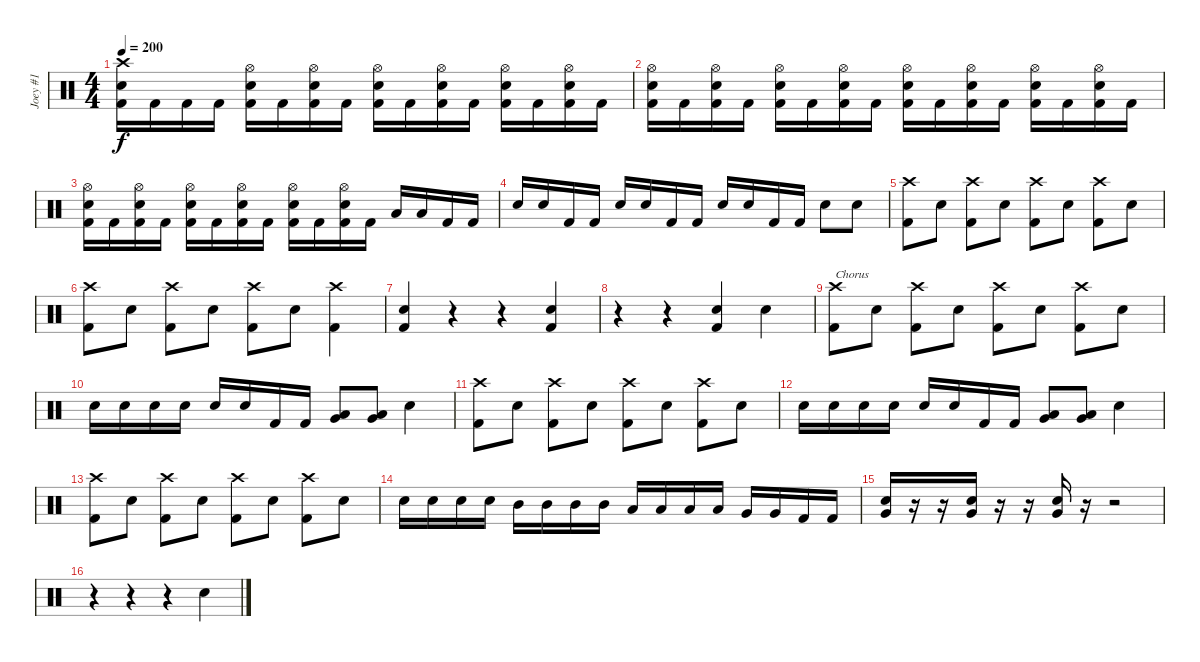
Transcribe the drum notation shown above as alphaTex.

\track ("Joey #1" "Joey #1") {instrument percussion}
\staff {score}
\articulation defaults
\ts (4 4)
\tempo 200
\clef neutral
\ks c
("Crash high (hit)" "Electric Snare (hit)" "Kick (hit) 2").16{dy f} "Kick (hit) 2".16 "Kick (hit) 2".16 "Kick (hit) 2".16 ("Hi-Hat (open)" "Electric Snare (hit)" "Kick (hit) 2").16 "Kick (hit) 2".16 ("Hi-Hat (open)" "Electric Snare (hit)" "Kick (hit) 2").16 "Kick (hit) 2".16 ("Hi-Hat (open)" "Electric Snare (hit)" "Kick (hit) 2").16 "Kick (hit) 2".16 ("Hi-Hat (open)" "Electric Snare (hit)" "Kick (hit) 2").16 "Kick (hit) 2".16 ("Hi-Hat (open)" "Electric Snare (hit)" "Kick (hit) 2").16 "Kick (hit) 2".16 ("Hi-Hat (open)" "Electric Snare (hit)" "Kick (hit) 2").16 "Kick (hit) 2".16 |
("Hi-Hat (open)" "Electric Snare (hit)" "Kick (hit) 2").16 "Kick (hit) 2".16 ("Hi-Hat (open)" "Electric Snare (hit)" "Kick (hit) 2").16 "Kick (hit) 2".16 ("Hi-Hat (open)" "Electric Snare (hit)" "Kick (hit) 2").16 "Kick (hit) 2".16 ("Hi-Hat (open)" "Electric Snare (hit)" "Kick (hit) 2").16 "Kick (hit) 2".16 ("Hi-Hat (open)" "Electric Snare (hit)" "Kick (hit) 2").16 "Kick (hit) 2".16 ("Hi-Hat (open)" "Electric Snare (hit)" "Kick (hit) 2").16 "Kick (hit) 2".16 ("Hi-Hat (open)" "Electric Snare (hit)" "Kick (hit) 2").16 "Kick (hit) 2".16 ("Hi-Hat (open)" "Electric Snare (hit)" "Kick (hit) 2").16 "Kick (hit) 2".16 |
("Hi-Hat (open)" "Electric Snare (hit)" "Kick (hit) 2").16 "Kick (hit) 2".16 ("Hi-Hat (open)" "Electric Snare (hit)" "Kick (hit) 2").16 "Kick (hit) 2".16 ("Hi-Hat (open)" "Electric Snare (hit)" "Kick (hit) 2").16 "Kick (hit) 2".16 ("Hi-Hat (open)" "Electric Snare (hit)" "Kick (hit) 2").16 "Kick (hit) 2".16 ("Hi-Hat (open)" "Electric Snare (hit)" "Kick (hit) 2").16 "Kick (hit) 2".16 ("Hi-Hat (open)" "Electric Snare (hit)" "Kick (hit) 2").16 "Kick (hit) 2".16 "Low Tom (hit)".16 "Low Tom (hit)".16 "Kick (hit) 2".16 "Kick (hit) 2".16 |
"Electric Snare (hit)".16 "Electric Snare (hit)".16 "Kick (hit) 2".16 "Kick (hit) 2".16 "Electric Snare (hit)".16 "Electric Snare (hit)".16 "Kick (hit) 2".16 "Kick (hit) 2".16 "Electric Snare (hit)".16 "Electric Snare (hit)".16 "Kick (hit) 2".16 "Kick (hit) 2".16 "Electric Snare (hit)".8 "Electric Snare (hit)".8 |
("Crash high (hit)" "Kick (hit) 2").8 "Electric Snare (hit)".8 ("Crash high (hit)" "Kick (hit) 2").8 "Electric Snare (hit)".8 ("Crash high (hit)" "Kick (hit) 2").8 "Electric Snare (hit)".8 ("Crash high (hit)" "Kick (hit) 2").8 "Electric Snare (hit)".8 |
("Crash high (hit)" "Kick (hit) 2").8 "Electric Snare (hit)".8 ("Crash high (hit)" "Kick (hit) 2").8 "Electric Snare (hit)".8 ("Crash high (hit)" "Kick (hit) 2").8 "Electric Snare (hit)".8 ("Crash high (hit)" "Kick (hit) 2").4 |
("Electric Snare (hit)" "Kick (hit) 2").4 r.4 r.4 ("Electric Snare (hit)" "Kick (hit) 2").4 |
r.4 r.4 ("Electric Snare (hit)" "Kick (hit) 2").4 "Electric Snare (hit)".4 |
("Crash high (hit)" "Kick (hit) 2").8{txt "Chorus"} "Electric Snare (hit)".8 ("Crash high (hit)" "Kick (hit) 2").8 "Electric Snare (hit)".8 ("Crash high (hit)" "Kick (hit) 2").8 "Electric Snare (hit)".8 ("Crash high (hit)" "Kick (hit) 2").8 "Electric Snare (hit)".8 |
"Electric Snare (hit)".16 "Electric Snare (hit)".16 "Electric Snare (hit)".16 "Electric Snare (hit)".16 "Electric Snare (hit)".16 "Electric Snare (hit)".16 "Kick (hit) 2".16 "Kick (hit) 2".16 ("Low Tom (hit)" "Very Low Tom (hit)").8 ("Low Tom (hit)" "Very Low Tom (hit)").8 "Electric Snare (hit)".4 |
("Crash high (hit)" "Kick (hit) 2").8 "Electric Snare (hit)".8 ("Crash high (hit)" "Kick (hit) 2").8 "Electric Snare (hit)".8 ("Crash high (hit)" "Kick (hit) 2").8 "Electric Snare (hit)".8 ("Crash high (hit)" "Kick (hit) 2").8 "Electric Snare (hit)".8 |
"Electric Snare (hit)".16 "Electric Snare (hit)".16 "Electric Snare (hit)".16 "Electric Snare (hit)".16 "Electric Snare (hit)".16 "Electric Snare (hit)".16 "Kick (hit) 2".16 "Kick (hit) 2".16 ("Low Tom (hit)" "Very Low Tom (hit)").8 ("Low Tom (hit)" "Very Low Tom (hit)").8 "Electric Snare (hit)".4 |
("Crash high (hit)" "Kick (hit) 2").8 "Electric Snare (hit)".8 ("Crash high (hit)" "Kick (hit) 2").8 "Electric Snare (hit)".8 ("Crash high (hit)" "Kick (hit) 2").8 "Electric Snare (hit)".8 ("Crash high (hit)" "Kick (hit) 2").8 "Electric Snare (hit)".8 |
"Electric Snare (hit)".16 "Electric Snare (hit)".16 "Electric Snare (hit)".16 "Electric Snare (hit)".16 "Mid Tom (hit)".16 "Mid Tom (hit)".16 "Mid Tom (hit)".16 "Mid Tom (hit)".16 "Low Tom (hit)".16 "Low Tom (hit)".16 "Low Tom (hit)".16 "Low Tom (hit)".16 "Very Low Tom (hit)".16 "Very Low Tom (hit)".16 "Kick (hit) 2".16 "Kick (hit) 2".16 |
("Electric Snare (hit)" "Very Low Tom (hit)").16 r.16 r.16 ("Electric Snare (hit)" "Very Low Tom (hit)").16 r.16 r.16 ("Electric Snare (hit)" "Very Low Tom (hit)").16 r.16 r.2 |
r.4 r.4 r.4 "Electric Snare (hit)".4
